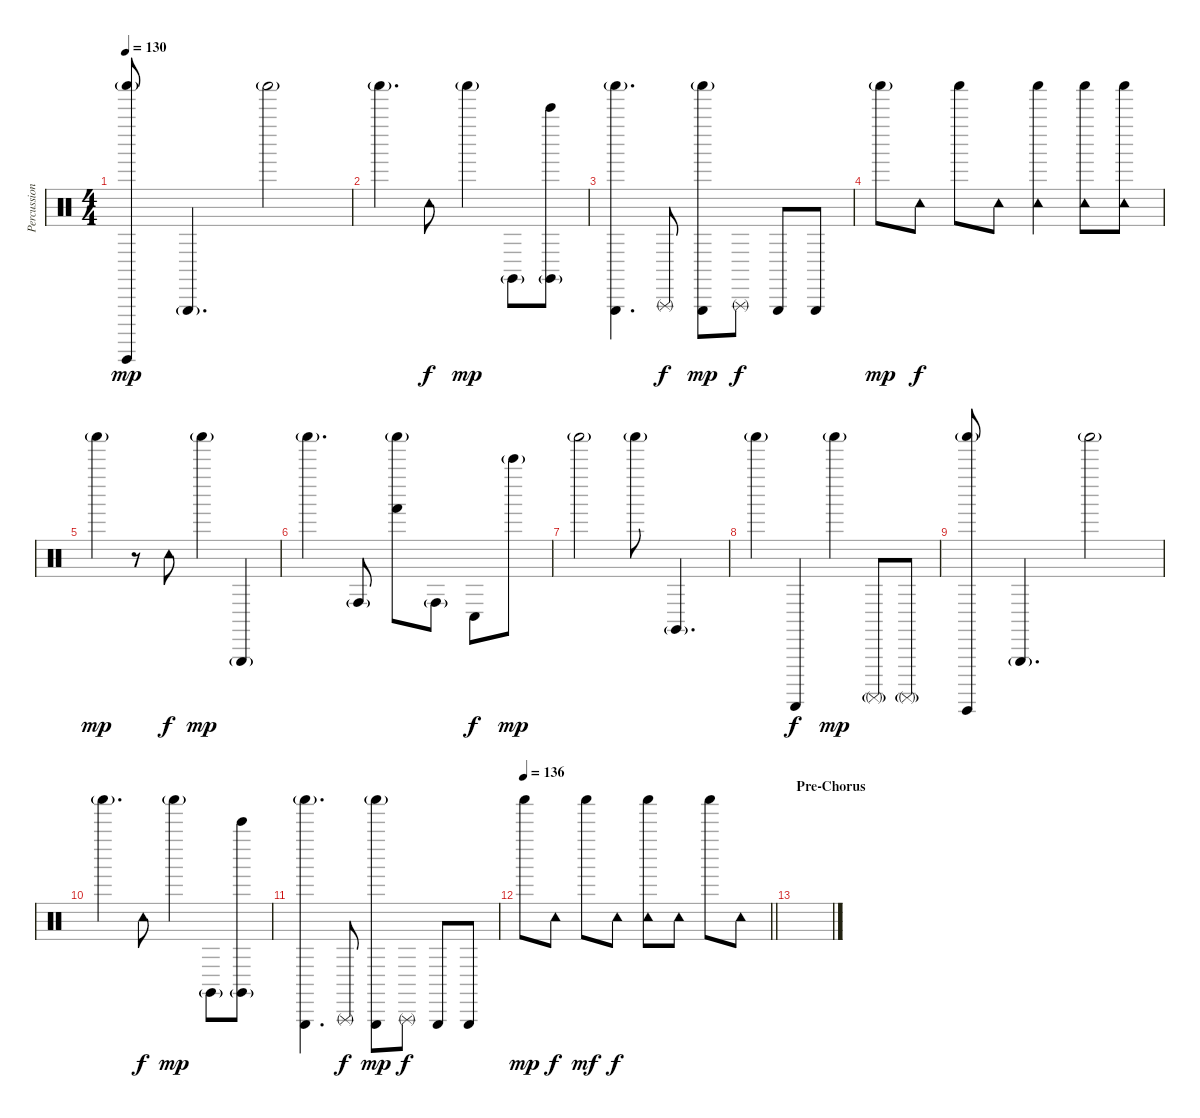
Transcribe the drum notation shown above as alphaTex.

\track ("Percussion / FX" "Percussion") {instrument percussion}
\staff {score}
\articulation defaults
\ts (4 4)
\tempo 130
\clef neutral
\ks c
("Shaker (hit)"{g} "Guiro (hit)").8{dy mp} "Triangle (hit)"{g}.4{d} "Shaker (hit)"{g}.2 |
"Shaker (hit)"{g}.4{d} "Tambourine (hit)".8{dy f} "Shaker (hit)"{g}.4{dy mp} "Claves (hit)"{g}.8 ("Claves (hit)"{g} "Bell Tree (hit)").8 |
("Shaker (hit)"{g} "Triangle (hit)").4{d} "Triangle (rnute)".8{dy f} ("Shaker (hit)"{g} "Triangle (hit)").8{dy mp} "Triangle (rnute)".8{dy f} "Triangle (hit)".8 "Triangle (hit)".8 |
"Shaker (hit)"{g}.8{dy mp} "Tambourine (hit)".8{dy f} "Shaker (hit)".8 "Tambourine (hit)".8 ("Shaker (hit)" "Tambourine (hit)").4 ("Shaker (hit)" "Tambourine (hit)").8 ("Shaker (hit)" "Tambourine (hit)").8 |
"Shaker (hit)"{g}.4{dy mp} r.8 "Tambourine (hit)".8{dy f} "Shaker (hit)"{g}.4{dy mp} "Triangle (hit)"{g}.4 |
"Shaker (hit)"{g}.4{d} "Conga high (hit)"{g}.8 ("Shaker (hit)"{g} "Hand (hit)").8 "Conga high (hit)"{g}.8 "Conga low (hit)".8{dy f} "Bell Tree (hit)"{g}.8{dy mp} |
"Shaker (hit)"{g}.2 "Shaker (hit)"{g}.8 "Claves (hit)"{g}.4{d} |
"Shaker (hit)"{g}.4 "Guiro (scrap-return)".4{dy f} "Shaker (hit)"{g}.4{dy mp} "Surdo (mute)"{g}.8 "Surdo (mute)"{g}.8 |
("Shaker (hit)"{g} "Guiro (hit)").8 "Triangle (hit)"{g}.4{d} "Shaker (hit)"{g}.2 |
"Shaker (hit)"{g}.4{d} "Tambourine (hit)".8{dy f} "Shaker (hit)"{g}.4{dy mp} "Claves (hit)"{g}.8 ("Claves (hit)"{g} "Bell Tree (hit)").8 |
("Shaker (hit)"{g} "Triangle (hit)").4{d} "Triangle (rnute)".8{dy f} ("Shaker (hit)"{g} "Triangle (hit)").8{dy mp} "Triangle (rnute)".8{dy f} "Triangle (hit)".8 "Triangle (hit)".8 |
\tempo 136
\barLineRight lightlight "Shaker (hit)".8{dy mp} "Tambourine (hit)".8{dy f} "Shaker (hit)".8{dy mf} "Tambourine (hit)".8{dy f}
("Shaker (hit)" "Tambourine (hit)").8 "Tambourine (hit)".8 "Shaker (hit)".8 "Tambourine (hit)".8 |
\section ("" "Pre-Chorus")
